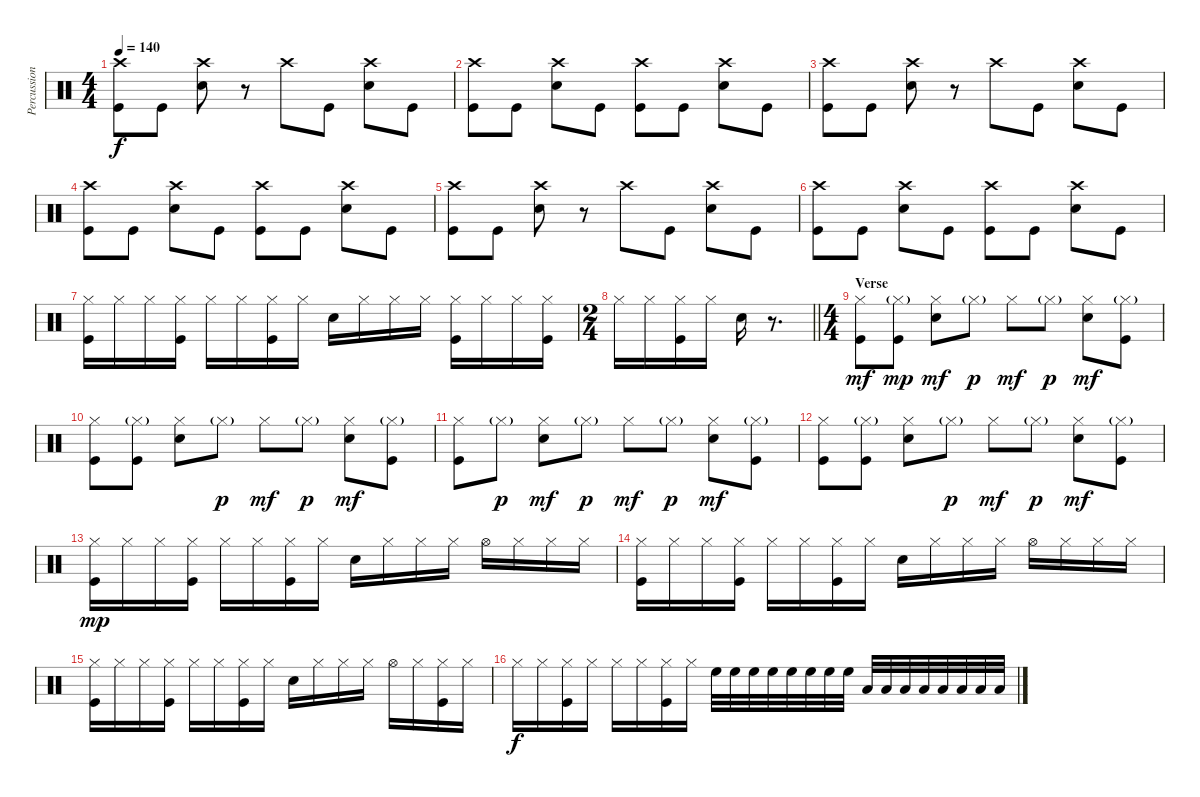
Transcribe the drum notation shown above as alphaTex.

\track ("Percussion" "Percussion") {instrument percussion}
\staff {score}
\articulation defaults
\ts (4 4)
\tempo 140
\clef neutral
\ks c
("Crash high (hit)" "Kick (hit)").8{dy f} "Kick (hit)".8 ("Crash high (hit)" "Snare (hit) 2").8 r.8 "Crash high (hit)".8 "Kick (hit)".8 ("Crash high (hit)" "Snare (hit) 2").8 "Kick (hit)".8 |
("Crash high (hit)" "Kick (hit)").8 "Kick (hit)".8 ("Crash high (hit)" "Snare (hit) 2").8 "Kick (hit)".8 ("Crash high (hit)" "Kick (hit)").8 "Kick (hit)".8 ("Crash high (hit)" "Snare (hit) 2").8 "Kick (hit)".8 |
("Crash high (hit)" "Kick (hit)").8 "Kick (hit)".8 ("Crash high (hit)" "Snare (hit) 2").8 r.8 "Crash high (hit)".8 "Kick (hit)".8 ("Crash high (hit)" "Snare (hit) 2").8 "Kick (hit)".8 |
("Crash high (hit)" "Kick (hit)").8 "Kick (hit)".8 ("Crash high (hit)" "Snare (hit) 2").8 "Kick (hit)".8 ("Crash high (hit)" "Kick (hit)").8 "Kick (hit)".8 ("Crash high (hit)" "Snare (hit) 2").8 "Kick (hit)".8 |
("Crash high (hit)" "Kick (hit)").8 "Kick (hit)".8 ("Crash high (hit)" "Snare (hit) 2").8 r.8 "Crash high (hit)".8 "Kick (hit)".8 ("Crash high (hit)" "Snare (hit) 2").8 "Kick (hit)".8 |
("Crash high (hit)" "Kick (hit)").8 "Kick (hit)".8 ("Crash high (hit)" "Snare (hit) 2").8 "Kick (hit)".8 ("Crash high (hit)" "Kick (hit)").8 "Kick (hit)".8 ("Crash high (hit)" "Snare (hit) 2").8 "Kick (hit)".8 |
("Hi-Hat (closed)" "Kick (hit)").16 "Hi-Hat (closed)".16 "Hi-Hat (closed)".16 ("Hi-Hat (closed)" "Kick (hit)").16 "Hi-Hat (closed)".16 "Hi-Hat (closed)".16 ("Hi-Hat (closed)" "Kick (hit)").16 "Hi-Hat (closed)".16 "Snare (hit) 2".16 "Hi-Hat (closed)".16 "Hi-Hat (closed)".16 "Hi-Hat (closed)".16 ("Hi-Hat (closed)" "Kick (hit)").16 "Hi-Hat (closed)".16 "Hi-Hat (closed)".16 ("Hi-Hat (closed)" "Kick (hit)").16 |
\ts (2 4)
\barLineRight lightlight "Hi-Hat (closed)".16 "Hi-Hat (closed)".16
("Hi-Hat (closed)" "Kick (hit)").16 "Hi-Hat (closed)".16 "Snare (hit) 2".16 r.8{d} |
\ts (4 4)
\section ("" "Verse")
("Hi-Hat (closed)" "Kick (hit)").8{dy mf} ("Hi-Hat (closed)"{g} "Kick (hit)").8{dy mp} ("Hi-Hat (closed)" "Snare (hit) 2").8{dy mf} "Hi-Hat (closed)"{g}.8{dy p} "Hi-Hat (closed)".8{dy mf} "Hi-Hat (closed)"{g}.8{dy p} ("Hi-Hat (closed)" "Snare (hit) 2").8{dy mf} ("Hi-Hat (closed)"{g} "Kick (hit)").8 |
("Hi-Hat (closed)" "Kick (hit)").8 ("Hi-Hat (closed)"{g} "Kick (hit)").8 ("Hi-Hat (closed)" "Snare (hit) 2").8 "Hi-Hat (closed)"{g}.8{dy p} "Hi-Hat (closed)".8{dy mf} "Hi-Hat (closed)"{g}.8{dy p} ("Hi-Hat (closed)" "Snare (hit) 2").8{dy mf} ("Hi-Hat (closed)"{g} "Kick (hit)").8 |
("Hi-Hat (closed)" "Kick (hit)").8 "Hi-Hat (closed)"{g}.8{dy p} ("Hi-Hat (closed)" "Snare (hit) 2").8{dy mf} "Hi-Hat (closed)"{g}.8{dy p} "Hi-Hat (closed)".8{dy mf} "Hi-Hat (closed)"{g}.8{dy p} ("Hi-Hat (closed)" "Snare (hit) 2").8{dy mf} ("Hi-Hat (closed)"{g} "Kick (hit)").8 |
("Hi-Hat (closed)" "Kick (hit)").8 ("Hi-Hat (closed)"{g} "Kick (hit)").8 ("Hi-Hat (closed)" "Snare (hit) 2").8 "Hi-Hat (closed)"{g}.8{dy p} "Hi-Hat (closed)".8{dy mf} "Hi-Hat (closed)"{g}.8{dy p} ("Hi-Hat (closed)" "Snare (hit) 2").8{dy mf} ("Hi-Hat (closed)"{g} "Kick (hit)").8 |
("Hi-Hat (closed)" "Kick (hit)").16{dy mp} "Hi-Hat (closed)".16 "Hi-Hat (closed)".16 ("Hi-Hat (closed)" "Kick (hit)").16 "Hi-Hat (closed)".16 "Hi-Hat (closed)".16 ("Hi-Hat (closed)" "Kick (hit)").16 "Hi-Hat (closed)".16 "Snare (hit) 2".16 "Hi-Hat (closed)".16 "Hi-Hat (closed)".16 "Hi-Hat (closed)".16 "Hi-Hat (open)".16 "Hi-Hat (closed)".16 "Hi-Hat (closed)".16 "Hi-Hat (closed)".16 |
("Hi-Hat (closed)" "Kick (hit)").16 "Hi-Hat (closed)".16 "Hi-Hat (closed)".16 ("Hi-Hat (closed)" "Kick (hit)").16 "Hi-Hat (closed)".16 "Hi-Hat (closed)".16 ("Hi-Hat (closed)" "Kick (hit)").16 "Hi-Hat (closed)".16 "Snare (hit) 2".16 "Hi-Hat (closed)".16 "Hi-Hat (closed)".16 "Hi-Hat (closed)".16 "Hi-Hat (open)".16 "Hi-Hat (closed)".16 "Hi-Hat (closed)".16 "Hi-Hat (closed)".16 |
("Hi-Hat (closed)" "Kick (hit)").16 "Hi-Hat (closed)".16 "Hi-Hat (closed)".16 ("Hi-Hat (closed)" "Kick (hit)").16 "Hi-Hat (closed)".16 "Hi-Hat (closed)".16 ("Hi-Hat (closed)" "Kick (hit)").16 "Hi-Hat (closed)".16 "Snare (hit) 2".16 "Hi-Hat (closed)".16 "Hi-Hat (closed)".16 "Hi-Hat (closed)".16 "Hi-Hat (open)".16 "Hi-Hat (closed)".16 ("Hi-Hat (closed)" "Kick (hit)").16 "Hi-Hat (closed)".16 |
"Hi-Hat (closed)".16{dy f} "Hi-Hat (closed)".16 ("Hi-Hat (closed)" "Kick (hit)").16 "Hi-Hat (closed)".16 "Hi-Hat (closed)".16 "Hi-Hat (closed)".16 ("Hi-Hat (closed)" "Kick (hit)").16 "Hi-Hat (closed)".16 "High Floor Tom (hit)".32 "High Floor Tom (hit)".32 "High Floor Tom (hit)".32 "High Floor Tom (hit)".32 "High Floor Tom (hit)".32 "High Floor Tom (hit)".32 "High Floor Tom (hit)".32 "High Floor Tom (hit)".32 "Low Tom (hit)".32 "Low Tom (hit)".32 "Low Tom (hit)".32 "Low Tom (hit)".32 "Low Tom (hit)".32 "Low Tom (hit)".32 "Low Tom (hit)".32 "Low Tom (hit)".32
